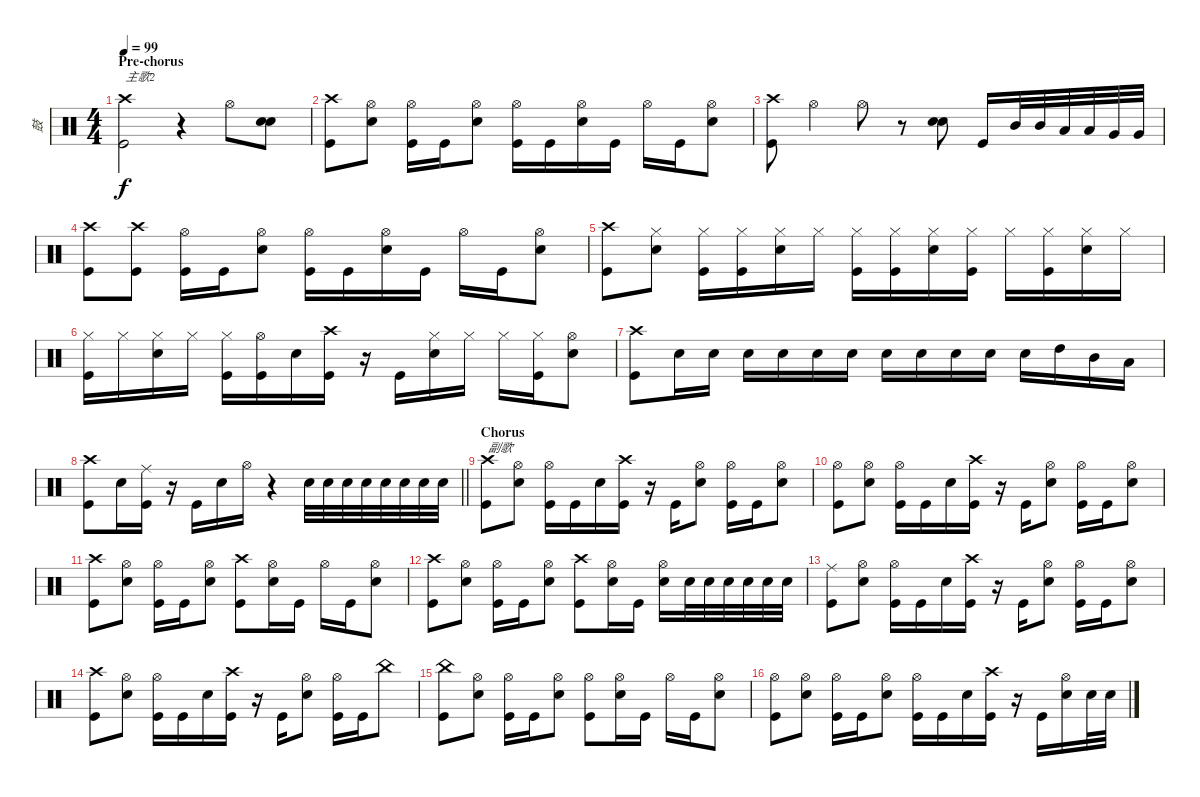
\track ("鼓" "鼓") {instrument percussion}
\staff {score}
\articulation defaults
\ts (4 4)
\section ("" "Pre-chorus")
\tempo 99
\clef neutral
\ks c
("Crash high (hit)" "Kick (hit)").2{txt "主歌2" dy f} r.4 "Hi-Hat (open)".8 ("Snare (hit) 2" "Snare (hit) 2").8 |
("Crash high (hit)" "Kick (hit)").8 ("Snare (hit) 2" "Hi-Hat (open)").8 ("Kick (hit)" "Hi-Hat (open)").16 "Kick (hit)".16 ("Snare (hit) 2" "Hi-Hat (open)").8 ("Kick (hit)" "Hi-Hat (open)").16 "Kick (hit)".16 ("Snare (hit) 2" "Hi-Hat (open)").16 "Kick (hit)".16 "Hi-Hat (open)".16 "Kick (hit)".16 ("Snare (hit) 2" "Hi-Hat (open)").8 |
("Crash high (hit)" "Kick (hit)").8 "Hi-Hat (open)".4 "Hi-Hat (open)".8 r.8 ("Snare (hit) 2" "Snare (hit) 2").8 "Kick (hit)".16 "Mid Tom (hit)".32 "Mid Tom (hit)".32 "Low Tom (hit)".32 "Low Tom (hit)".32 "Very Low Tom (hit)".32 "Very Low Tom (hit)".32 |
("Crash high (hit)" "Kick (hit)").8 ("Crash high (hit)" "Kick (hit)").8 ("Kick (hit)" "Hi-Hat (open)").16 "Kick (hit)".16 ("Snare (hit) 2" "Hi-Hat (open)").8 ("Kick (hit)" "Hi-Hat (open)").16 "Kick (hit)".16 ("Snare (hit) 2" "Hi-Hat (open)").16 "Kick (hit)".16 "Hi-Hat (open)".16 "Kick (hit)".16 ("Snare (hit) 2" "Hi-Hat (open)").8 |
("Crash high (hit)" "Kick (hit)").8 ("Snare (hit) 2" "Hi-Hat (closed)").8 ("Hi-Hat (closed)" "Kick (hit)").16 ("Kick (hit)" "Hi-Hat (closed)").16 ("Snare (hit) 2" "Hi-Hat (closed)").16 "Hi-Hat (closed)".16 ("Hi-Hat (closed)" "Kick (hit)").16 ("Kick (hit)" "Hi-Hat (closed)").16 ("Snare (hit) 2" "Hi-Hat (closed)").16 ("Hi-Hat (closed)" "Kick (hit)").16 "Hi-Hat (closed)".16 ("Kick (hit)" "Hi-Hat (closed)").16 ("Snare (hit) 2" "Hi-Hat (closed)").16 "Hi-Hat (closed)".16 |
("Hi-Hat (closed)" "Kick (hit)").16 "Hi-Hat (closed)".16 ("Snare (hit) 2" "Hi-Hat (closed)").16 "Hi-Hat (closed)".16 ("Kick (hit)" "Hi-Hat (closed)").16 ("Kick (hit)" "Hi-Hat (open)").16 "Snare (hit) 2".16 ("Crash high (hit)" "Kick (hit)").16 r.16 "Kick (hit)".16 ("Snare (hit) 2" "Hi-Hat (closed)").16 "Hi-Hat (closed)".16 "Hi-Hat (closed)".16 ("Kick (hit)" "Hi-Hat (closed)").16 ("Snare (hit) 2" "Hi-Hat (open)").8 |
("Crash high (hit)" "Kick (hit)").8 "Snare (hit) 2".16 "Snare (hit) 2".16 "Snare (hit) 2".16 "Snare (hit) 2".16 "Snare (hit) 2".16 "Snare (hit) 2".16 "Snare (hit) 2".16 "Snare (hit) 2".16 "Snare (hit) 2".16 "Snare (hit) 2".16 "Snare (hit) 2".16 "High Tom (hit)".16 "Mid Tom (hit)".16 "Low Tom (hit)".16 |
\barLineRight lightlight
("Crash high (hit)" "Kick (hit)").8 "Snare (hit) 2".16 ("Kick (hit)" "Ride (middle)").16 r.16 "Kick (hit)".16 "Snare (hit) 2".16 "Hi-Hat (open)".16 r.4 "Snare (hit) 2".32 "Snare (hit) 2".32 "Snare (hit) 2".32 "Snare (hit) 2".32 "Snare (hit) 2".32 "Snare (hit) 2".32 "Snare (hit) 2".32 "Snare (hit) 2".32 |
\section ("" "Chorus")
("Crash high (hit)" "Kick (hit)").8{txt "副歌"} ("Snare (hit) 2" "Hi-Hat (open)").8 ("Kick (hit)" "Hi-Hat (open)").16 "Kick (hit)".16 "Snare (hit) 2".16 ("Crash high (hit)" "Kick (hit)").16 r.16 "Kick (hit)".16 ("Hi-Hat (open)" "Snare (hit) 2").8 ("Kick (hit)" "Hi-Hat (open)").16 "Kick (hit)".16 ("Snare (hit) 2" "Hi-Hat (open)").8 |
("Hi-Hat (open)" "Kick (hit)").8 ("Snare (hit) 2" "Hi-Hat (open)").8 ("Kick (hit)" "Hi-Hat (open)").16 "Kick (hit)".16 "Snare (hit) 2".16 ("Crash high (hit)" "Kick (hit)").16 r.16 "Kick (hit)".16 ("Hi-Hat (open)" "Snare (hit) 2").8 ("Kick (hit)" "Hi-Hat (open)").16 "Kick (hit)".16 ("Snare (hit) 2" "Hi-Hat (open)").8 |
("Crash high (hit)" "Kick (hit)").8 ("Snare (hit) 2" "Hi-Hat (open)").8 ("Kick (hit)" "Hi-Hat (open)").16 "Kick (hit)".16 ("Snare (hit) 2" "Hi-Hat (open)").8 ("Crash high (hit)" "Kick (hit)").8 ("Snare (hit) 2" "Hi-Hat (open)").16 "Kick (hit)".16 "Hi-Hat (open)".16 "Kick (hit)".16 ("Snare (hit) 2" "Hi-Hat (open)").8 |
("Crash high (hit)" "Kick (hit)").8 ("Snare (hit) 2" "Hi-Hat (open)").8 ("Kick (hit)" "Hi-Hat (open)").16 "Kick (hit)".16 ("Snare (hit) 2" "Hi-Hat (open)").8 ("Crash high (hit)" "Kick (hit)").8 ("Snare (hit) 2" "Hi-Hat (open)").16 "Kick (hit)".16 ("Hi-Hat (open)" "Snare (hit) 2").16 "Snare (hit) 2".32 "Snare (hit) 2".32 "Snare (hit) 2".32 "Snare (hit) 2".32 "Snare (hit) 2".32 "Snare (hit) 2".32 |
("Ride (middle)" "Kick (hit)").8 ("Snare (hit) 2" "Hi-Hat (open)").8 ("Kick (hit)" "Hi-Hat (open)").16 "Kick (hit)".16 "Snare (hit) 2".16 ("Crash high (hit)" "Kick (hit)").16 r.16 "Kick (hit)".16 ("Hi-Hat (open)" "Snare (hit) 2").8 ("Kick (hit)" "Hi-Hat (open)").16 "Kick (hit)".16 ("Snare (hit) 2" "Hi-Hat (open)").8 |
("Crash high (hit)" "Kick (hit)").8 ("Snare (hit) 2" "Hi-Hat (open)").8 ("Kick (hit)" "Hi-Hat (open)").16 "Kick (hit)".16 "Snare (hit) 2".16 ("Crash high (hit)" "Kick (hit)").16 r.16 "Kick (hit)".16 ("Hi-Hat (open)" "Snare (hit) 2").8 ("Kick (hit)" "Hi-Hat (open)").16 "Kick (hit)".16 "China (hit)".8 |
("China (hit)" "Kick (hit)").8 ("Snare (hit) 2" "Hi-Hat (open)").8 ("Kick (hit)" "Hi-Hat (open)").16 "Kick (hit)".16 ("Snare (hit) 2" "Hi-Hat (open)").8 ("Hi-Hat (open)" "Kick (hit)").8 ("Snare (hit) 2" "Hi-Hat (open)").16 "Kick (hit)".16 "Hi-Hat (open)".16 "Kick (hit)".16 ("Snare (hit) 2" "Hi-Hat (open)").8 |
("Hi-Hat (open)" "Kick (hit)").8 ("Snare (hit) 2" "Hi-Hat (open)").8 ("Kick (hit)" "Hi-Hat (open)").16 "Kick (hit)".16 ("Snare (hit) 2" "Hi-Hat (open)").8 ("Hi-Hat (open)" "Kick (hit)").16 "Kick (hit)".16 "Snare (hit) 2".16 ("Kick (hit)" "Crash high (hit)").16 r.16 "Kick (hit)".16 ("Hi-Hat (open)" "Snare (hit) 2").16 "Snare (hit) 2".32 "Snare (hit) 2".32
